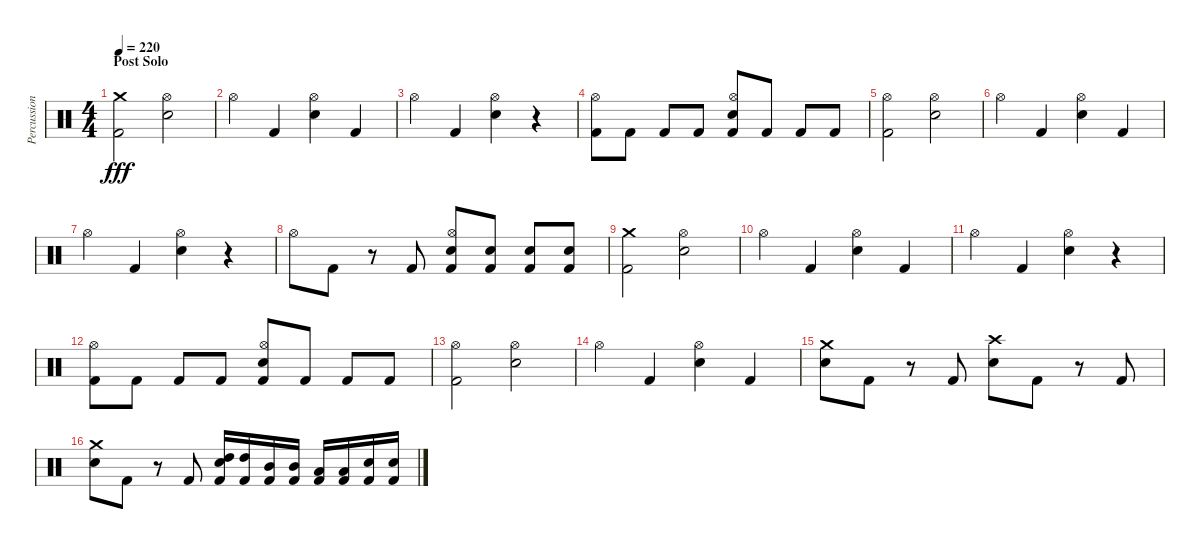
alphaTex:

\track ("Percussion" "Percussion") {instrument percussion}
\staff {score}
\articulation defaults
\ts (4 4)
\section ("" "Post Solo")
\tempo 220
\clef neutral
\ks c
("Crash medium (hit)" "Kick (hit) 2").2{dy fff} ("Hi-Hat (open)" "Electric Snare (hit)").2 |
"Hi-Hat (open)".4 "Kick (hit) 2".4 ("Hi-Hat (open)" "Electric Snare (hit)").4 "Kick (hit) 2".4 |
"Hi-Hat (open)".4 "Kick (hit) 2".4 ("Hi-Hat (open)" "Electric Snare (hit)").4 r.4 |
("Hi-Hat (open)" "Kick (hit) 2").8 "Kick (hit) 2".8 "Kick (hit) 2".8 "Kick (hit) 2".8 ("Hi-Hat (open)" "Electric Snare (hit)" "Kick (hit) 2").8 "Kick (hit) 2".8 "Kick (hit) 2".8 "Kick (hit) 2".8 |
("Hi-Hat (open)" "Kick (hit) 2").2 ("Hi-Hat (open)" "Electric Snare (hit)").2 |
"Hi-Hat (open)".4 "Kick (hit) 2".4 ("Hi-Hat (open)" "Electric Snare (hit)").4 "Kick (hit) 2".4 |
"Hi-Hat (open)".4 "Kick (hit) 2".4 ("Hi-Hat (open)" "Electric Snare (hit)").4 r.4 |
"Hi-Hat (open)".8 "Kick (hit) 2".8 r.8 "Kick (hit) 2".8 ("Hi-Hat (open)" "Electric Snare (hit)" "Kick (hit) 2").8 ("Electric Snare (hit)" "Kick (hit) 2").8 ("Electric Snare (hit)" "Kick (hit) 2").8 ("Electric Snare (hit)" "Kick (hit) 2").8 |
("Crash medium (hit)" "Kick (hit) 2").2 ("Hi-Hat (open)" "Electric Snare (hit)").2 |
"Hi-Hat (open)".4 "Kick (hit) 2".4 ("Hi-Hat (open)" "Electric Snare (hit)").4 "Kick (hit) 2".4 |
"Hi-Hat (open)".4 "Kick (hit) 2".4 ("Hi-Hat (open)" "Electric Snare (hit)").4 r.4 |
("Hi-Hat (open)" "Kick (hit) 2").8 "Kick (hit) 2".8 "Kick (hit) 2".8 "Kick (hit) 2".8 ("Hi-Hat (open)" "Electric Snare (hit)" "Kick (hit) 2").8 "Kick (hit) 2".8 "Kick (hit) 2".8 "Kick (hit) 2".8 |
("Hi-Hat (open)" "Kick (hit) 2").2 ("Hi-Hat (open)" "Electric Snare (hit)").2 |
"Hi-Hat (open)".4 "Kick (hit) 2".4 ("Hi-Hat (open)" "Electric Snare (hit)").4 "Kick (hit) 2".4 |
("Crash medium (hit)" "Electric Snare (hit)").8 "Kick (hit) 2".8 r.8 "Kick (hit) 2".8 ("Crash high (hit)" "Electric Snare (hit)").8 "Kick (hit) 2".8 r.8 "Kick (hit) 2".8 |
("Crash medium (hit)" "Electric Snare (hit)").8 "Kick (hit) 2".8 r.8 "Kick (hit) 2".8 ("High Tom (hit)" "Electric Snare (hit)" "Kick (hit) 2").16 ("High Tom (hit)" "Kick (hit) 2").16 ("Mid Tom (hit)" "Kick (hit) 2").16 ("Mid Tom (hit)" "Kick (hit) 2").16 ("Low Tom (hit)" "Kick (hit) 2").16 ("Low Tom (hit)" "Kick (hit) 2").16 ("Electric Snare (hit)" "Kick (hit) 2").16 ("Electric Snare (hit)" "Kick (hit) 2").16
